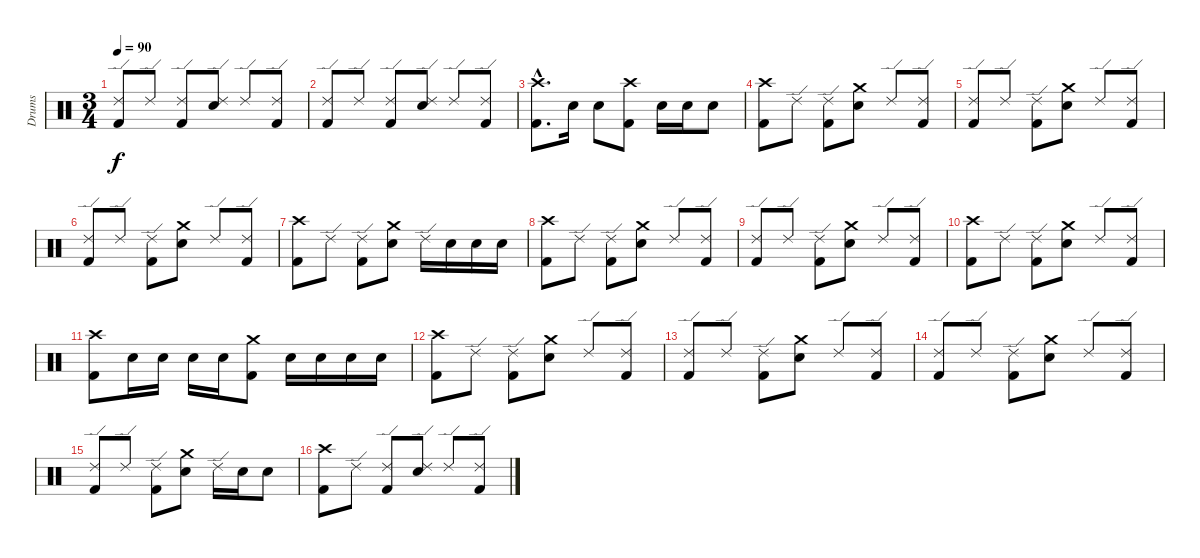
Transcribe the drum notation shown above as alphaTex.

\track ("Drums" "Drums") {instrument percussion}
\staff {score}
\articulation defaults
\ts (3 4)
\tempo 90
\clef neutral
\ks c
("Ride (edge) 2" "Kick (hit) 2").8{dy f} "Ride (edge) 2".8 ("Ride (edge) 2" "Kick (hit) 2").8 ("Ride (edge) 2" "Electric Snare (hit)").8 "Ride (edge) 2".8 ("Ride (edge) 2" "Kick (hit) 2").8 |
("Ride (edge) 2" "Kick (hit) 2").8 "Ride (edge) 2".8 ("Ride (edge) 2" "Kick (hit) 2").8 ("Ride (edge) 2" "Electric Snare (hit)").8 "Ride (edge) 2".8 ("Ride (edge) 2" "Kick (hit) 2").8 |
("Crash high (hit)"{hac} "Kick (hit) 2"{hac}).8{d} "Electric Snare (hit)".16 "Electric Snare (hit)".8 ("Crash high (hit)" "Kick (hit) 2").8 "Electric Snare (hit)".16 "Electric Snare (hit)".16 "Electric Snare (hit)".8 |
("Crash high (hit)" "Kick (hit) 2").8 "Ride (edge) 2".8 ("Ride (edge) 2" "Kick (hit) 2").8 ("Crash medium (hit)" "Electric Snare (hit)").8 "Ride (edge) 2".8 ("Ride (edge) 2" "Kick (hit) 2").8 |
("Ride (edge) 2" "Kick (hit) 2").8 "Ride (edge) 2".8 ("Ride (edge) 2" "Kick (hit) 2").8 ("Crash medium (hit)" "Electric Snare (hit)").8 "Ride (edge) 2".8 ("Ride (edge) 2" "Kick (hit) 2").8 |
("Ride (edge) 2" "Kick (hit) 2").8 "Ride (edge) 2".8 ("Ride (edge) 2" "Kick (hit) 2").8 ("Crash medium (hit)" "Electric Snare (hit)").8 "Ride (edge) 2".8 ("Ride (edge) 2" "Kick (hit) 2").8 |
("Crash high (hit)" "Kick (hit) 2").8 "Ride (edge) 2".8 ("Ride (edge) 2" "Kick (hit) 2").8 ("Crash medium (hit)" "Electric Snare (hit)").8 "Ride (edge) 2".16 "Electric Snare (hit)".16 "Electric Snare (hit)".16 "Electric Snare (hit)".16 |
("Crash high (hit)" "Kick (hit) 2").8 "Ride (edge) 2".8 ("Ride (edge) 2" "Kick (hit) 2").8 ("Crash medium (hit)" "Electric Snare (hit)").8 "Ride (edge) 2".8 ("Ride (edge) 2" "Kick (hit) 2").8 |
("Ride (edge) 2" "Kick (hit) 2").8 "Ride (edge) 2".8 ("Ride (edge) 2" "Kick (hit) 2").8 ("Crash medium (hit)" "Electric Snare (hit)").8 "Ride (edge) 2".8 ("Ride (edge) 2" "Kick (hit) 2").8 |
("Crash high (hit)" "Kick (hit) 2").8 "Ride (edge) 2".8 ("Ride (edge) 2" "Kick (hit) 2").8 ("Crash medium (hit)" "Electric Snare (hit)").8 "Ride (edge) 2".8 ("Ride (edge) 2" "Kick (hit) 2").8 |
("Crash high (hit)" "Kick (hit) 2").8 "Electric Snare (hit)".16 "Electric Snare (hit)".16 "Electric Snare (hit)".16 "Electric Snare (hit)".16 ("Crash medium (hit)" "Kick (hit) 2").8 "Electric Snare (hit)".16 "Electric Snare (hit)".16 "Electric Snare (hit)".16 "Electric Snare (hit)".16 |
("Crash high (hit)" "Kick (hit) 2").8 "Ride (edge) 2".8 ("Ride (edge) 2" "Kick (hit) 2").8 ("Crash medium (hit)" "Electric Snare (hit)").8 "Ride (edge) 2".8 ("Ride (edge) 2" "Kick (hit) 2").8 |
("Ride (edge) 2" "Kick (hit) 2").8 "Ride (edge) 2".8 ("Ride (edge) 2" "Kick (hit) 2").8 ("Crash medium (hit)" "Electric Snare (hit)").8 "Ride (edge) 2".8 ("Ride (edge) 2" "Kick (hit) 2").8 |
("Ride (edge) 2" "Kick (hit) 2").8 "Ride (edge) 2".8 ("Ride (edge) 2" "Kick (hit) 2").8 ("Crash medium (hit)" "Electric Snare (hit)").8 "Ride (edge) 2".8 ("Ride (edge) 2" "Kick (hit) 2").8 |
("Ride (edge) 2" "Kick (hit) 2").8 "Ride (edge) 2".8 ("Ride (edge) 2" "Kick (hit) 2").8 ("Crash medium (hit)" "Electric Snare (hit)").8 "Ride (edge) 2".16 "Electric Snare (hit)".16 "Electric Snare (hit)".8 |
("Crash high (hit)" "Kick (hit) 2").8 "Ride (edge) 2".8 ("Ride (edge) 2" "Kick (hit) 2").8 ("Ride (edge) 2" "Electric Snare (hit)").8 "Ride (edge) 2".8 ("Ride (edge) 2" "Kick (hit) 2").8
